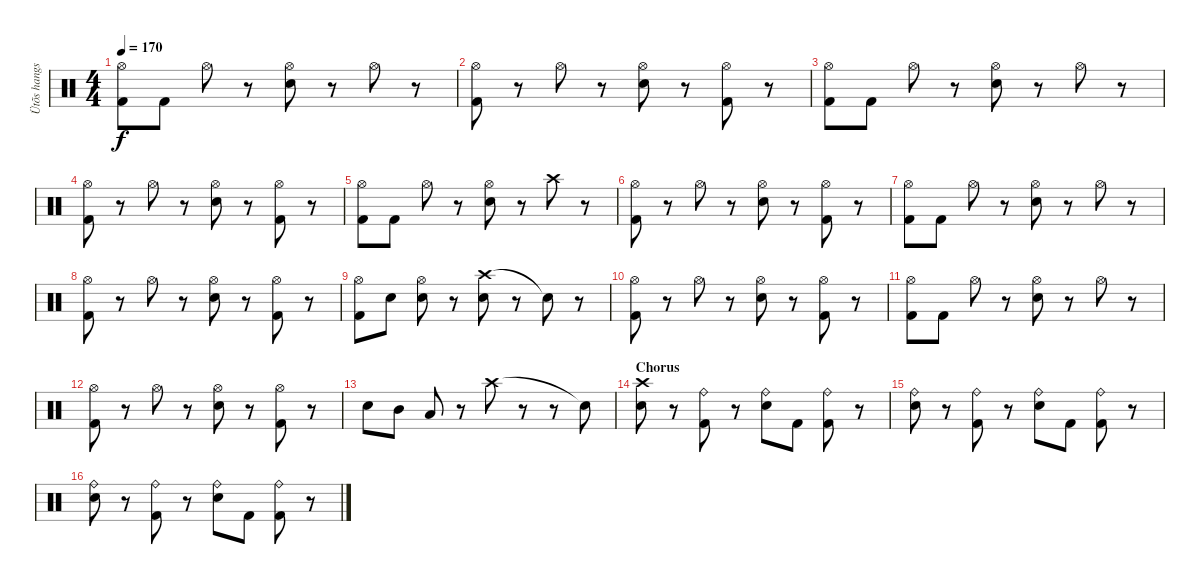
\track ("Ütõs hangszer" "Ütõs hangs") {instrument percussion}
\staff {score}
\articulation defaults
\ts (4 4)
\tempo 170
\clef neutral
\ks c
("Hi-Hat (open)" "Kick (hit) 2").8{dy f} "Kick (hit) 2".8 "Hi-Hat (open)".8 r.8 ("Hi-Hat (open)" "Snare (hit) 2").8 r.8 "Hi-Hat (open)".8 r.8 |
("Hi-Hat (open)" "Kick (hit) 2").8 r.8 "Hi-Hat (open)".8 r.8 ("Hi-Hat (open)" "Snare (hit) 2").8 r.8 ("Hi-Hat (open)" "Kick (hit) 2").8 r.8 |
("Hi-Hat (open)" "Kick (hit) 2").8 "Kick (hit) 2".8 "Hi-Hat (open)".8 r.8 ("Hi-Hat (open)" "Snare (hit) 2").8 r.8 "Hi-Hat (open)".8 r.8 |
("Hi-Hat (open)" "Kick (hit) 2").8 r.8 "Hi-Hat (open)".8 r.8 ("Hi-Hat (open)" "Snare (hit) 2").8 r.8 ("Hi-Hat (open)" "Kick (hit) 2").8 r.8 |
("Hi-Hat (open)" "Kick (hit) 2").8 "Kick (hit) 2".8 "Hi-Hat (open)".8 r.8 ("Hi-Hat (open)" "Snare (hit) 2").8 r.8 "Crash high (hit)".8 r.8 |
("Hi-Hat (open)" "Kick (hit) 2").8 r.8 "Hi-Hat (open)".8 r.8 ("Hi-Hat (open)" "Snare (hit) 2").8 r.8 ("Hi-Hat (open)" "Kick (hit) 2").8 r.8 |
("Hi-Hat (open)" "Kick (hit) 2").8 "Kick (hit) 2".8 "Hi-Hat (open)".8 r.8 ("Hi-Hat (open)" "Snare (hit) 2").8 r.8 "Hi-Hat (open)".8 r.8 |
("Hi-Hat (open)" "Kick (hit) 2").8 r.8 "Hi-Hat (open)".8 r.8 ("Hi-Hat (open)" "Snare (hit) 2").8 r.8 ("Hi-Hat (open)" "Kick (hit) 2").8 r.8 |
("Hi-Hat (open)" "Kick (hit) 2").8 "Snare (hit) 2".8 ("Hi-Hat (open)" "Snare (hit) 2").8 r.8 ("Crash high (hit)" "Snare (hit) 2").8 r.8 "Snare (hit)"{t}.8 r.8 |
("Hi-Hat (open)" "Kick (hit) 2").8 r.8 "Hi-Hat (open)".8 r.8 ("Hi-Hat (open)" "Snare (hit) 2").8 r.8 ("Hi-Hat (open)" "Kick (hit) 2").8 r.8 |
("Hi-Hat (open)" "Kick (hit) 2").8 "Kick (hit) 2".8 "Hi-Hat (open)".8 r.8 ("Hi-Hat (open)" "Snare (hit) 2").8 r.8 "Hi-Hat (open)".8 r.8 |
("Hi-Hat (open)" "Kick (hit) 2").8 r.8 "Hi-Hat (open)".8 r.8 ("Hi-Hat (open)" "Snare (hit) 2").8 r.8 ("Hi-Hat (open)" "Kick (hit) 2").8 r.8 |
"Snare (hit) 2".8 "Mid Tom (hit)".8 "Low Tom (hit)".8 r.8 "Crash high (hit)".8 r.8 r.8 "Snare (hit)"{t}.8 |
\section ("" "Chorus")
("Crash high (hit)" "Snare (hit) 2").8 r.8 ("Ride (bell)" "Kick (hit) 2").8 r.8 ("Ride (bell)" "Snare (hit) 2").8 "Kick (hit) 2".8 ("Ride (bell)" "Kick (hit) 2").8 r.8 |
("Ride (bell)" "Snare (hit) 2").8 r.8 ("Ride (bell)" "Kick (hit) 2").8 r.8 ("Ride (bell)" "Snare (hit) 2").8 "Kick (hit) 2".8 ("Ride (bell)" "Kick (hit) 2").8 r.8 |
("Ride (bell)" "Snare (hit) 2").8 r.8 ("Ride (bell)" "Kick (hit) 2").8 r.8 ("Ride (bell)" "Snare (hit) 2").8 "Kick (hit) 2".8 ("Ride (bell)" "Kick (hit) 2").8 r.8
